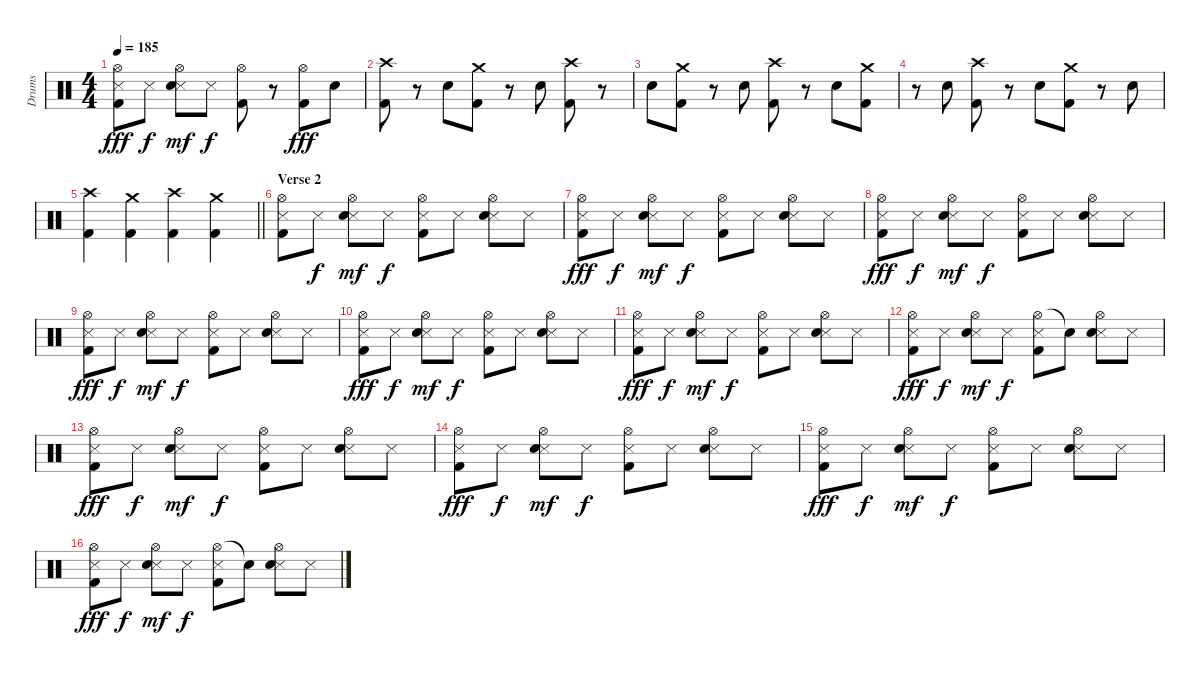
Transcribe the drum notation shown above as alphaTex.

\track ("Drums" "Drums") {instrument percussion}
\staff {score}
\articulation defaults
\ts (4 4)
\tempo 185
\clef neutral
\ks c
("Hi-Hat (open)" "Metronome (hit)" "Kick (hit) 2").8{dy fff} "Metronome (hit)".8{dy f} ("Hi-Hat (open)" "Metronome (hit)" "Snare (hit) 2").8{dy mf} "Metronome (hit)".8{dy f} ("Hi-Hat (open)" "Kick (hit) 2").8 r.8 ("Hi-Hat (open)" "Kick (hit) 2").8{dy fff} "Snare (hit) 2".8 |
("Crash high (hit)" "Kick (hit) 2").8 r.8 "Snare (hit) 2".8 ("Crash medium (hit)" "Kick (hit) 2").8 r.8 "Snare (hit) 2".8 ("Crash high (hit)" "Kick (hit) 2").8 r.8 |
"Snare (hit) 2".8 ("Crash medium (hit)" "Kick (hit) 2").8 r.8 "Snare (hit) 2".8 ("Crash high (hit)" "Kick (hit) 2").8 r.8 "Snare (hit) 2".8 ("Crash medium (hit)" "Kick (hit) 2").8 |
r.8 "Snare (hit) 2".8 ("Crash high (hit)" "Kick (hit) 2").8 r.8 "Snare (hit) 2".8 ("Crash medium (hit)" "Kick (hit) 2").8 r.8 "Snare (hit) 2".8 |
\barLineRight lightlight
("Crash high (hit)" "Kick (hit) 2").4 ("Crash medium (hit)" "Kick (hit) 2").4 ("Crash high (hit)" "Kick (hit) 2").4 ("Crash medium (hit)" "Kick (hit) 2").4 |
\section ("" "Verse 2")
("Hi-Hat (open)" "Metronome (hit)" "Kick (hit) 2").8 "Metronome (hit)".8{dy f} ("Hi-Hat (open)" "Metronome (hit)" "Snare (hit) 2").8{dy mf} "Metronome (hit)".8{dy f} ("Hi-Hat (open)" "Metronome (hit)" "Kick (hit) 2").8 "Metronome (hit)".8 ("Hi-Hat (open)" "Metronome (hit)" "Snare (hit) 2").8 "Metronome (hit)".8 |
("Hi-Hat (open)" "Metronome (hit)" "Kick (hit) 2").8{dy fff} "Metronome (hit)".8{dy f} ("Hi-Hat (open)" "Metronome (hit)" "Snare (hit) 2").8{dy mf} "Metronome (hit)".8{dy f} ("Hi-Hat (open)" "Metronome (hit)" "Kick (hit) 2").8 "Metronome (hit)".8 ("Hi-Hat (open)" "Metronome (hit)" "Snare (hit) 2").8 "Metronome (hit)".8 |
("Hi-Hat (open)" "Metronome (hit)" "Kick (hit) 2").8{dy fff} "Metronome (hit)".8{dy f} ("Hi-Hat (open)" "Metronome (hit)" "Snare (hit) 2").8{dy mf} "Metronome (hit)".8{dy f} ("Hi-Hat (open)" "Metronome (hit)" "Kick (hit) 2").8 "Metronome (hit)".8 ("Hi-Hat (open)" "Metronome (hit)" "Snare (hit) 2").8 "Metronome (hit)".8 |
("Hi-Hat (open)" "Metronome (hit)" "Kick (hit) 2").8{dy fff} "Metronome (hit)".8{dy f} ("Hi-Hat (open)" "Metronome (hit)" "Snare (hit) 2").8{dy mf} "Metronome (hit)".8{dy f} ("Hi-Hat (open)" "Metronome (hit)" "Kick (hit) 2").8 "Metronome (hit)".8 ("Hi-Hat (open)" "Metronome (hit)" "Snare (hit) 2").8 "Metronome (hit)".8 |
("Hi-Hat (open)" "Metronome (hit)" "Kick (hit) 2").8{dy fff} "Metronome (hit)".8{dy f} ("Hi-Hat (open)" "Metronome (hit)" "Snare (hit) 2").8{dy mf} "Metronome (hit)".8{dy f} ("Hi-Hat (open)" "Metronome (hit)" "Kick (hit) 2").8 "Metronome (hit)".8 ("Hi-Hat (open)" "Metronome (hit)" "Snare (hit) 2").8 "Metronome (hit)".8 |
("Hi-Hat (open)" "Metronome (hit)" "Kick (hit) 2").8{dy fff} "Metronome (hit)".8{dy f} ("Hi-Hat (open)" "Metronome (hit)" "Snare (hit) 2").8{dy mf} "Metronome (hit)".8{dy f} ("Hi-Hat (open)" "Metronome (hit)" "Kick (hit) 2").8 "Metronome (hit)".8 ("Hi-Hat (open)" "Metronome (hit)" "Snare (hit) 2").8 "Metronome (hit)".8 |
("Hi-Hat (open)" "Metronome (hit)" "Kick (hit) 2").8{dy fff} "Metronome (hit)".8{dy f} ("Hi-Hat (open)" "Metronome (hit)" "Snare (hit) 2").8{dy mf} "Metronome (hit)".8{dy f} ("Hi-Hat (open)" "Metronome (hit)" "Kick (hit) 2").8 "Snare (hit)"{t}.8 ("Hi-Hat (open)" "Metronome (hit)" "Snare (hit) 2").8 "Metronome (hit)".8 |
("Hi-Hat (open)" "Metronome (hit)" "Kick (hit) 2").8{dy fff} "Metronome (hit)".8{dy f} ("Hi-Hat (open)" "Metronome (hit)" "Snare (hit) 2").8{dy mf} "Metronome (hit)".8{dy f} ("Hi-Hat (open)" "Metronome (hit)" "Kick (hit) 2").8 "Metronome (hit)".8 ("Hi-Hat (open)" "Metronome (hit)" "Snare (hit) 2").8 "Metronome (hit)".8 |
("Hi-Hat (open)" "Metronome (hit)" "Kick (hit) 2").8{dy fff} "Metronome (hit)".8{dy f} ("Hi-Hat (open)" "Metronome (hit)" "Snare (hit) 2").8{dy mf} "Metronome (hit)".8{dy f} ("Hi-Hat (open)" "Metronome (hit)" "Kick (hit) 2").8 "Metronome (hit)".8 ("Hi-Hat (open)" "Metronome (hit)" "Snare (hit) 2").8 "Metronome (hit)".8 |
("Hi-Hat (open)" "Metronome (hit)" "Kick (hit) 2").8{dy fff} "Metronome (hit)".8{dy f} ("Hi-Hat (open)" "Metronome (hit)" "Snare (hit) 2").8{dy mf} "Metronome (hit)".8{dy f} ("Hi-Hat (open)" "Metronome (hit)" "Kick (hit) 2").8 "Metronome (hit)".8 ("Hi-Hat (open)" "Metronome (hit)" "Snare (hit) 2").8 "Metronome (hit)".8 |
("Hi-Hat (open)" "Metronome (hit)" "Kick (hit) 2").8{dy fff} "Metronome (hit)".8{dy f} ("Hi-Hat (open)" "Metronome (hit)" "Snare (hit) 2").8{dy mf} "Metronome (hit)".8{dy f} ("Hi-Hat (open)" "Metronome (hit)" "Kick (hit) 2").8 "Snare (hit)"{t}.8 ("Hi-Hat (open)" "Metronome (hit)" "Snare (hit) 2").8 "Metronome (hit)".8
